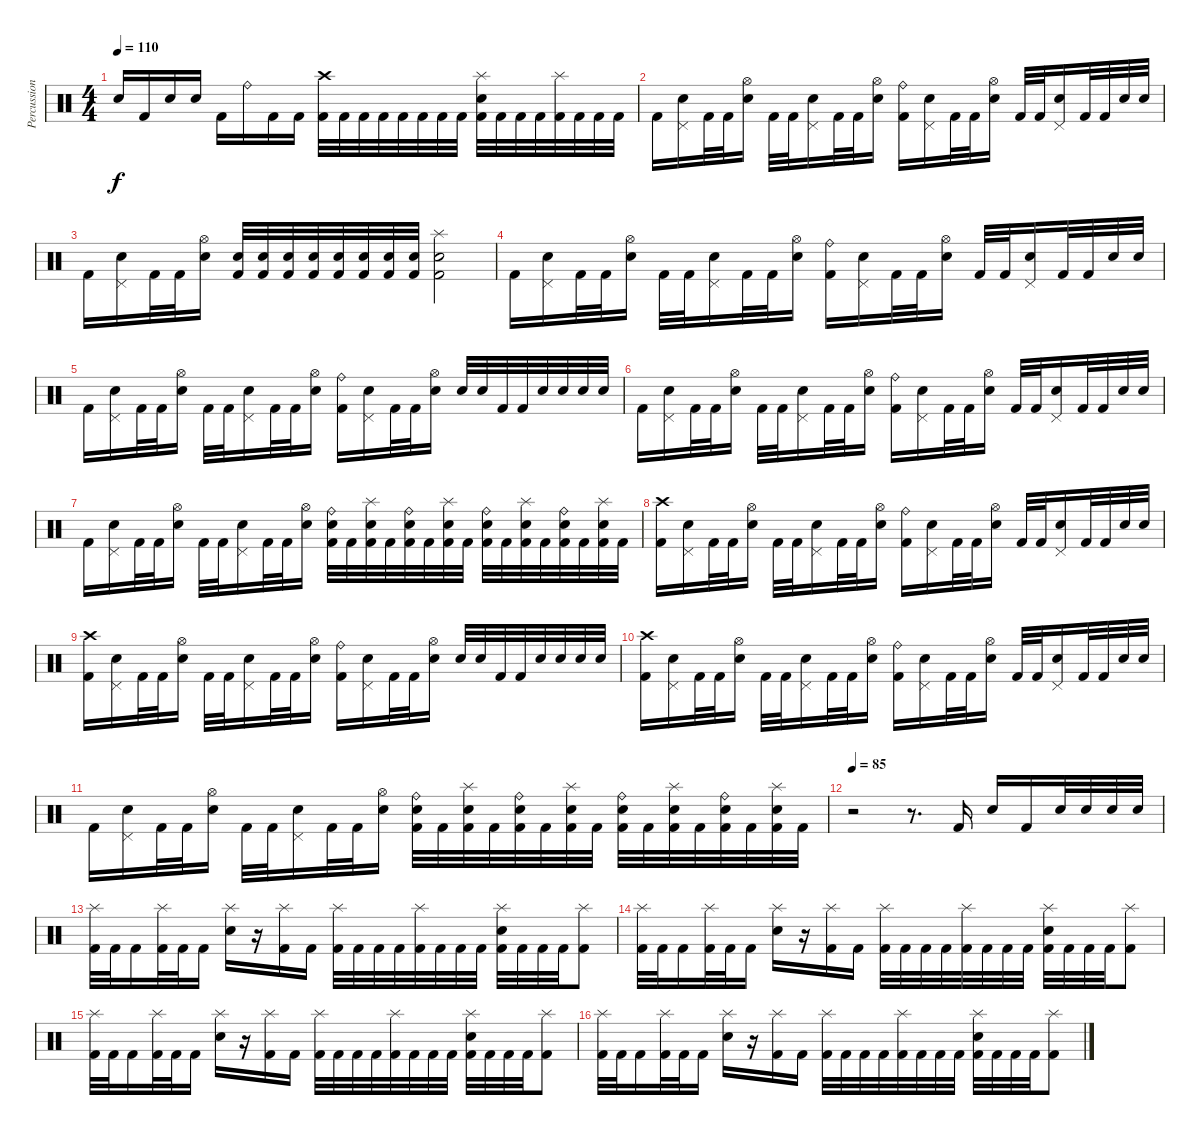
\track ("Percussion" "Percussion") {instrument percussion}
\staff {score}
\articulation defaults
\ts (4 4)
\tempo 110
\clef neutral
\ks c "Snare (hit) 2".16{dy f} "Kick (hit) 2".16 "Snare (hit) 2".16 "Snare (hit) 2".16 "Kick (hit) 2".16 "Ride (bell)".16 "Kick (hit) 2".16 "Kick (hit) 2".16
("Crash high (hit)" "Kick (hit) 2").32 "Kick (hit) 2".32 "Kick (hit) 2".32 "Kick (hit) 2".32 "Kick (hit) 2".32 "Kick (hit) 2".32 "Kick (hit) 2".32 "Kick (hit) 2".32 ("Splash (hit)" "Snare (hit) 2" "Kick (hit) 2").32 "Kick (hit) 2".32 "Kick (hit) 2".32 "Kick (hit) 2".32 ("Splash (hit)" "Kick (hit) 2").32 "Kick (hit) 2".32 "Kick (hit) 2".32 "Kick (hit) 2".32 |
"Kick (hit) 2".16 ("Pedal Hi-Hat (hit)" "Snare (hit) 2").16 "Kick (hit) 2".32 "Kick (hit) 2".32 ("Hi-Hat (open)" "Snare (hit) 2").16 "Kick (hit) 2".32 "Kick (hit) 2".32 ("Pedal Hi-Hat (hit)" "Snare (hit) 2").16 "Kick (hit) 2".32 "Kick (hit) 2".32 ("Hi-Hat (open)" "Snare (hit) 2").16 ("Ride (bell)" "Kick (hit) 2").16 ("Pedal Hi-Hat (hit)" "Snare (hit) 2").16 "Kick (hit) 2".32 "Kick (hit) 2".32 ("Hi-Hat (open)" "Snare (hit) 2").16 "Kick (hit) 2".32 "Kick (hit) 2".32 ("Pedal Hi-Hat (hit)" "Snare (hit) 2").16 "Kick (hit) 2".32 "Kick (hit) 2".32 "Snare (hit) 2".32 "Snare (hit) 2".32 |
"Kick (hit) 2".16 ("Pedal Hi-Hat (hit)" "Snare (hit) 2").16 "Kick (hit) 2".32 "Kick (hit) 2".32 ("Hi-Hat (open)" "Snare (hit) 2").16 ("Snare (hit) 2" "Kick (hit) 2").32 ("Snare (hit) 2" "Kick (hit) 2").32 ("Snare (hit) 2" "Kick (hit) 2").32 ("Snare (hit) 2" "Kick (hit) 2").32 ("Snare (hit) 2" "Kick (hit) 2").32 ("Snare (hit) 2" "Kick (hit) 2").32 ("Snare (hit) 2" "Kick (hit) 2").32 ("Snare (hit) 2" "Kick (hit) 2").32 ("Splash (hit)" "Snare (hit) 2" "Kick (hit) 2").2 |
"Kick (hit) 2".16 ("Pedal Hi-Hat (hit)" "Snare (hit) 2").16 "Kick (hit) 2".32 "Kick (hit) 2".32 ("Hi-Hat (open)" "Snare (hit) 2").16 "Kick (hit) 2".32 "Kick (hit) 2".32 ("Pedal Hi-Hat (hit)" "Snare (hit) 2").16 "Kick (hit) 2".32 "Kick (hit) 2".32 ("Hi-Hat (open)" "Snare (hit) 2").16 ("Ride (bell)" "Kick (hit) 2").16 ("Pedal Hi-Hat (hit)" "Snare (hit) 2").16 "Kick (hit) 2".32 "Kick (hit) 2".32 ("Hi-Hat (open)" "Snare (hit) 2").16 "Kick (hit) 2".32 "Kick (hit) 2".32 ("Pedal Hi-Hat (hit)" "Snare (hit) 2").16 "Kick (hit) 2".32 "Kick (hit) 2".32 "Snare (hit) 2".32 "Snare (hit) 2".32 |
"Kick (hit) 2".16 ("Pedal Hi-Hat (hit)" "Snare (hit) 2").16 "Kick (hit) 2".32 "Kick (hit) 2".32 ("Hi-Hat (open)" "Snare (hit) 2").16 "Kick (hit) 2".32 "Kick (hit) 2".32 ("Pedal Hi-Hat (hit)" "Snare (hit) 2").16 "Kick (hit) 2".32 "Kick (hit) 2".32 ("Hi-Hat (open)" "Snare (hit) 2").16 ("Ride (bell)" "Kick (hit) 2").16 ("Pedal Hi-Hat (hit)" "Snare (hit) 2").16 "Kick (hit) 2".32 "Kick (hit) 2".32 ("Hi-Hat (open)" "Snare (hit) 2").16 "Snare (hit) 2".32 "Snare (hit) 2".32 "Kick (hit) 2".32 "Kick (hit) 2".32 "Snare (hit) 2".32 "Snare (hit) 2".32 "Snare (hit) 2".32 "Snare (hit) 2".32 |
"Kick (hit) 2".16 ("Pedal Hi-Hat (hit)" "Snare (hit) 2").16 "Kick (hit) 2".32 "Kick (hit) 2".32 ("Hi-Hat (open)" "Snare (hit) 2").16 "Kick (hit) 2".32 "Kick (hit) 2".32 ("Pedal Hi-Hat (hit)" "Snare (hit) 2").16 "Kick (hit) 2".32 "Kick (hit) 2".32 ("Hi-Hat (open)" "Snare (hit) 2").16 ("Ride (bell)" "Kick (hit) 2").16 ("Pedal Hi-Hat (hit)" "Snare (hit) 2").16 "Kick (hit) 2".32 "Kick (hit) 2".32 ("Hi-Hat (open)" "Snare (hit) 2").16 "Kick (hit) 2".32 "Kick (hit) 2".32 ("Pedal Hi-Hat (hit)" "Snare (hit) 2").16 "Kick (hit) 2".32 "Kick (hit) 2".32 "Snare (hit) 2".32 "Snare (hit) 2".32 |
"Kick (hit) 2".16 ("Pedal Hi-Hat (hit)" "Snare (hit) 2").16 "Kick (hit) 2".32 "Kick (hit) 2".32 ("Hi-Hat (open)" "Snare (hit) 2").16 "Kick (hit) 2".32 "Kick (hit) 2".32 ("Pedal Hi-Hat (hit)" "Snare (hit) 2").16 "Kick (hit) 2".32 "Kick (hit) 2".32 ("Hi-Hat (open)" "Snare (hit) 2").16 ("Ride (bell)" "Snare (hit) 2" "Kick (hit) 2").32 "Kick (hit) 2".32 ("Splash (hit)" "Snare (hit) 2" "Kick (hit) 2").32 "Kick (hit) 2".32 ("Ride (bell)" "Snare (hit) 2" "Kick (hit) 2").32 "Kick (hit) 2".32 ("Splash (hit)" "Snare (hit) 2" "Kick (hit) 2").32 "Kick (hit) 2".32 ("Ride (bell)" "Snare (hit) 2" "Kick (hit) 2").32 "Kick (hit) 2".32 ("Splash (hit)" "Snare (hit) 2" "Kick (hit) 2").32 "Kick (hit) 2".32 ("Ride (bell)" "Snare (hit) 2" "Kick (hit) 2").32 "Kick (hit) 2".32 ("Splash (hit)" "Snare (hit) 2" "Kick (hit) 2").32 "Kick (hit) 2".32 |
("Crash high (hit)" "Kick (hit) 2").16 ("Pedal Hi-Hat (hit)" "Snare (hit) 2").16 "Kick (hit) 2".32 "Kick (hit) 2".32 ("Hi-Hat (open)" "Snare (hit) 2").16 "Kick (hit) 2".32 "Kick (hit) 2".32 ("Pedal Hi-Hat (hit)" "Snare (hit) 2").16 "Kick (hit) 2".32 "Kick (hit) 2".32 ("Hi-Hat (open)" "Snare (hit) 2").16 ("Ride (bell)" "Kick (hit) 2").16 ("Pedal Hi-Hat (hit)" "Snare (hit) 2").16 "Kick (hit) 2".32 "Kick (hit) 2".32 ("Hi-Hat (open)" "Snare (hit) 2").16 "Kick (hit) 2".32 "Kick (hit) 2".32 ("Pedal Hi-Hat (hit)" "Snare (hit) 2").16 "Kick (hit) 2".32 "Kick (hit) 2".32 "Snare (hit) 2".32 "Snare (hit) 2".32 |
("Crash high (hit)" "Kick (hit) 2").16 ("Pedal Hi-Hat (hit)" "Snare (hit) 2").16 "Kick (hit) 2".32 "Kick (hit) 2".32 ("Hi-Hat (open)" "Snare (hit) 2").16 "Kick (hit) 2".32 "Kick (hit) 2".32 ("Pedal Hi-Hat (hit)" "Snare (hit) 2").16 "Kick (hit) 2".32 "Kick (hit) 2".32 ("Hi-Hat (open)" "Snare (hit) 2").16 ("Ride (bell)" "Kick (hit) 2").16 ("Pedal Hi-Hat (hit)" "Snare (hit) 2").16 "Kick (hit) 2".32 "Kick (hit) 2".32 ("Hi-Hat (open)" "Snare (hit) 2").16 "Snare (hit) 2".32 "Snare (hit) 2".32 "Kick (hit) 2".32 "Kick (hit) 2".32 "Snare (hit) 2".32 "Snare (hit) 2".32 "Snare (hit) 2".32 "Snare (hit) 2".32 |
("Crash high (hit)" "Kick (hit) 2").16 ("Pedal Hi-Hat (hit)" "Snare (hit) 2").16 "Kick (hit) 2".32 "Kick (hit) 2".32 ("Hi-Hat (open)" "Snare (hit) 2").16 "Kick (hit) 2".32 "Kick (hit) 2".32 ("Pedal Hi-Hat (hit)" "Snare (hit) 2").16 "Kick (hit) 2".32 "Kick (hit) 2".32 ("Hi-Hat (open)" "Snare (hit) 2").16 ("Ride (bell)" "Kick (hit) 2").16 ("Pedal Hi-Hat (hit)" "Snare (hit) 2").16 "Kick (hit) 2".32 "Kick (hit) 2".32 ("Hi-Hat (open)" "Snare (hit) 2").16 "Kick (hit) 2".32 "Kick (hit) 2".32 ("Pedal Hi-Hat (hit)" "Snare (hit) 2").16 "Kick (hit) 2".32 "Kick (hit) 2".32 "Snare (hit) 2".32 "Snare (hit) 2".32 |
"Kick (hit) 2".16 ("Pedal Hi-Hat (hit)" "Snare (hit) 2").16 "Kick (hit) 2".32 "Kick (hit) 2".32 ("Hi-Hat (open)" "Snare (hit) 2").16 "Kick (hit) 2".32 "Kick (hit) 2".32 ("Pedal Hi-Hat (hit)" "Snare (hit) 2").16 "Kick (hit) 2".32 "Kick (hit) 2".32 ("Hi-Hat (open)" "Snare (hit) 2").16 ("Ride (bell)" "Snare (hit) 2" "Kick (hit) 2").32 "Kick (hit) 2".32 ("Splash (hit)" "Snare (hit) 2" "Kick (hit) 2").32 "Kick (hit) 2".32 ("Ride (bell)" "Snare (hit) 2" "Kick (hit) 2").32 "Kick (hit) 2".32 ("Splash (hit)" "Snare (hit) 2" "Kick (hit) 2").32 "Kick (hit) 2".32 ("Ride (bell)" "Snare (hit) 2" "Kick (hit) 2").32 "Kick (hit) 2".32 ("Splash (hit)" "Snare (hit) 2" "Kick (hit) 2").32 "Kick (hit) 2".32 ("Ride (bell)" "Snare (hit) 2" "Kick (hit) 2").32 "Kick (hit) 2".32 ("Splash (hit)" "Snare (hit) 2" "Kick (hit) 2").32 "Kick (hit) 2".32 |
\tempo 85
r.2 r.8{d} "Kick (hit) 2".16 "Snare (hit) 2".16 "Kick (hit) 2".16 "Snare (hit) 2".32 "Snare (hit) 2".32 "Snare (hit) 2".32 "Snare (hit) 2".32 |
("Splash (hit)" "Kick (hit) 2").32 "Kick (hit) 2".32 "Kick (hit) 2".16 ("Splash (hit)" "Kick (hit) 2").32 "Kick (hit) 2".32 "Kick (hit) 2".16 ("Splash (hit)" "Snare (hit) 2").16 r.16 ("Splash (hit)" "Kick (hit) 2").16 "Kick (hit) 2".16 ("Splash (hit)" "Kick (hit) 2").32 "Kick (hit) 2".32 "Kick (hit) 2".32 "Kick (hit) 2".32 ("Splash (hit)" "Kick (hit) 2").32 "Kick (hit) 2".32 "Kick (hit) 2".32 "Kick (hit) 2".32 ("Splash (hit)" "Snare (hit) 2" "Kick (hit) 2").32 "Kick (hit) 2".32 "Kick (hit) 2".32 "Kick (hit) 2".32 ("Splash (hit)" "Kick (hit) 2").8 |
("Splash (hit)" "Kick (hit) 2").32 "Kick (hit) 2".32 "Kick (hit) 2".16 ("Splash (hit)" "Kick (hit) 2").32 "Kick (hit) 2".32 "Kick (hit) 2".16 ("Splash (hit)" "Snare (hit) 2").16 r.16 ("Splash (hit)" "Kick (hit) 2").16 "Kick (hit) 2".16 ("Splash (hit)" "Kick (hit) 2").32 "Kick (hit) 2".32 "Kick (hit) 2".32 "Kick (hit) 2".32 ("Splash (hit)" "Kick (hit) 2").32 "Kick (hit) 2".32 "Kick (hit) 2".32 "Kick (hit) 2".32 ("Splash (hit)" "Snare (hit) 2" "Kick (hit) 2").32 "Kick (hit) 2".32 "Kick (hit) 2".32 "Kick (hit) 2".32 ("Splash (hit)" "Kick (hit) 2").8 |
("Splash (hit)" "Kick (hit) 2").32 "Kick (hit) 2".32 "Kick (hit) 2".16 ("Splash (hit)" "Kick (hit) 2").32 "Kick (hit) 2".32 "Kick (hit) 2".16 ("Splash (hit)" "Snare (hit) 2").16 r.16 ("Splash (hit)" "Kick (hit) 2").16 "Kick (hit) 2".16 ("Splash (hit)" "Kick (hit) 2").32 "Kick (hit) 2".32 "Kick (hit) 2".32 "Kick (hit) 2".32 ("Splash (hit)" "Kick (hit) 2").32 "Kick (hit) 2".32 "Kick (hit) 2".32 "Kick (hit) 2".32 ("Splash (hit)" "Snare (hit) 2" "Kick (hit) 2").32 "Kick (hit) 2".32 "Kick (hit) 2".32 "Kick (hit) 2".32 ("Splash (hit)" "Kick (hit) 2").8 |
("Splash (hit)" "Kick (hit) 2").32 "Kick (hit) 2".32 "Kick (hit) 2".16 ("Splash (hit)" "Kick (hit) 2").32 "Kick (hit) 2".32 "Kick (hit) 2".16 ("Splash (hit)" "Snare (hit) 2").16 r.16 ("Splash (hit)" "Kick (hit) 2").16 "Kick (hit) 2".16 ("Splash (hit)" "Kick (hit) 2").32 "Kick (hit) 2".32 "Kick (hit) 2".32 "Kick (hit) 2".32 ("Splash (hit)" "Kick (hit) 2").32 "Kick (hit) 2".32 "Kick (hit) 2".32 "Kick (hit) 2".32 ("Splash (hit)" "Snare (hit) 2" "Kick (hit) 2").32 "Kick (hit) 2".32 "Kick (hit) 2".32 "Kick (hit) 2".32 ("Splash (hit)" "Kick (hit) 2").8
